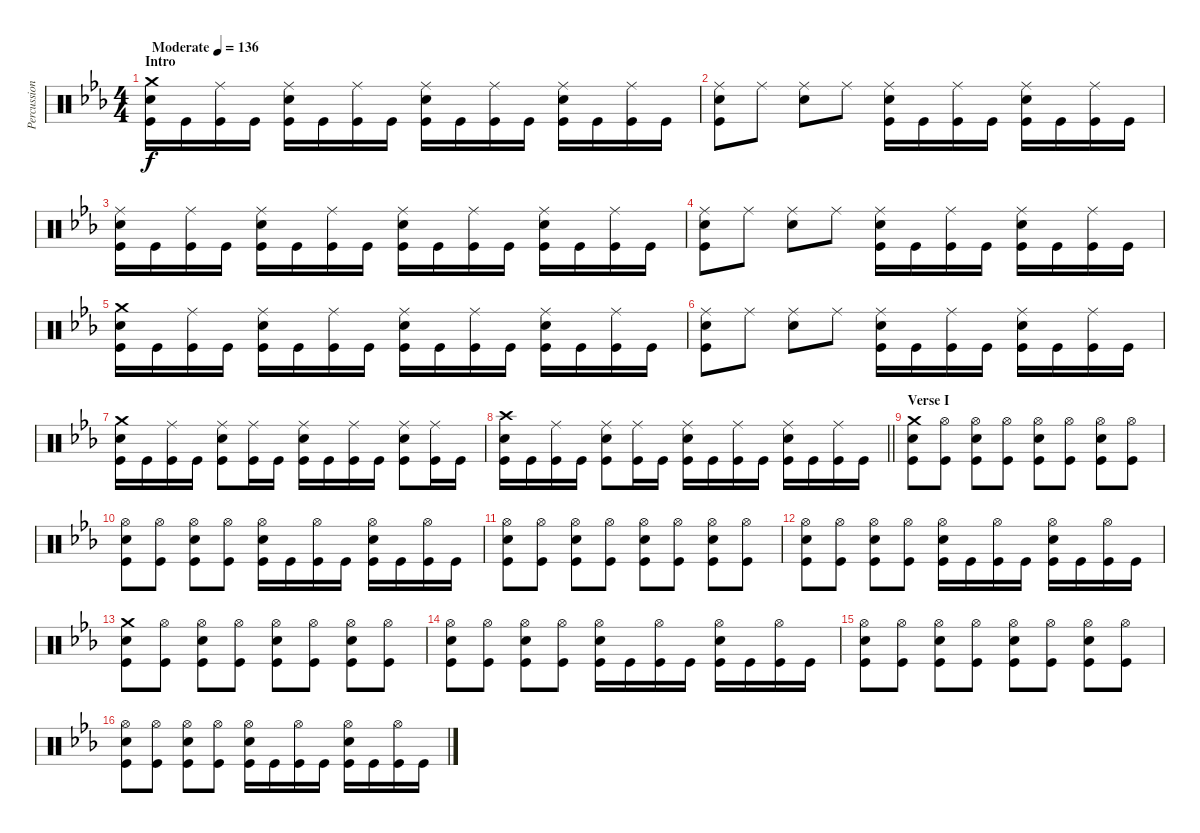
\track ("Percussion" "Percussion") {instrument percussion}
\staff {score}
\articulation defaults
\ts (4 4)
\section ("" "Intro")
\tempo (136 "Moderate")
\clef neutral
\ks eb
("Crash medium (hit)" "Electric Snare (hit)" "Kick (hit)").16{dy f} "Kick (hit)".16 ("Ride (middle)" "Kick (hit)").16 "Kick (hit)".16 ("Ride (middle)" "Electric Snare (hit)" "Kick (hit)").16 "Kick (hit)".16 ("Ride (middle)" "Kick (hit)").16 "Kick (hit)".16 ("Ride (middle)" "Electric Snare (hit)" "Kick (hit)").16 "Kick (hit)".16 ("Ride (middle)" "Kick (hit)").16 "Kick (hit)".16 ("Ride (middle)" "Electric Snare (hit)" "Kick (hit)").16 "Kick (hit)".16 ("Ride (middle)" "Kick (hit)").16 "Kick (hit)".16 |
("Ride (middle)" "Electric Snare (hit)" "Kick (hit)").8 "Ride (middle)".8 ("Ride (middle)" "Electric Snare (hit)").8 "Ride (middle)".8 ("Ride (middle)" "Electric Snare (hit)" "Kick (hit)").16 "Kick (hit)".16 ("Ride (middle)" "Kick (hit)").16 "Kick (hit)".16 ("Ride (middle)" "Electric Snare (hit)" "Kick (hit)").16 "Kick (hit)".16 ("Ride (middle)" "Kick (hit)").16 "Kick (hit)".16 |
("Ride (middle)" "Electric Snare (hit)" "Kick (hit)").16 "Kick (hit)".16 ("Ride (middle)" "Kick (hit)").16 "Kick (hit)".16 ("Ride (middle)" "Electric Snare (hit)" "Kick (hit)").16 "Kick (hit)".16 ("Ride (middle)" "Kick (hit)").16 "Kick (hit)".16 ("Ride (middle)" "Electric Snare (hit)" "Kick (hit)").16 "Kick (hit)".16 ("Ride (middle)" "Kick (hit)").16 "Kick (hit)".16 ("Ride (middle)" "Electric Snare (hit)" "Kick (hit)").16 "Kick (hit)".16 ("Ride (middle)" "Kick (hit)").16 "Kick (hit)".16 |
("Ride (middle)" "Electric Snare (hit)" "Kick (hit)").8 "Ride (middle)".8 ("Ride (middle)" "Electric Snare (hit)").8 "Ride (middle)".8 ("Ride (middle)" "Electric Snare (hit)" "Kick (hit)").16 "Kick (hit)".16 ("Ride (middle)" "Kick (hit)").16 "Kick (hit)".16 ("Ride (middle)" "Electric Snare (hit)" "Kick (hit)").16 "Kick (hit)".16 ("Ride (middle)" "Kick (hit)").16 "Kick (hit)".16 |
("Crash medium (hit)" "Electric Snare (hit)" "Kick (hit)").16 "Kick (hit)".16 ("Ride (middle)" "Kick (hit)").16 "Kick (hit)".16 ("Ride (middle)" "Electric Snare (hit)" "Kick (hit)").16 "Kick (hit)".16 ("Ride (middle)" "Kick (hit)").16 "Kick (hit)".16 ("Ride (middle)" "Electric Snare (hit)" "Kick (hit)").16 "Kick (hit)".16 ("Ride (middle)" "Kick (hit)").16 "Kick (hit)".16 ("Ride (middle)" "Electric Snare (hit)" "Kick (hit)").16 "Kick (hit)".16 ("Ride (middle)" "Kick (hit)").16 "Kick (hit)".16 |
("Ride (middle)" "Electric Snare (hit)" "Kick (hit)").8 "Ride (middle)".8 ("Ride (middle)" "Electric Snare (hit)").8 "Ride (middle)".8 ("Ride (middle)" "Electric Snare (hit)" "Kick (hit)").16 "Kick (hit)".16 ("Ride (middle)" "Kick (hit)").16 "Kick (hit)".16 ("Ride (middle)" "Electric Snare (hit)" "Kick (hit)").16 "Kick (hit)".16 ("Ride (middle)" "Kick (hit)").16 "Kick (hit)".16 |
("Crash medium (hit)" "Electric Snare (hit)" "Kick (hit)").16 "Kick (hit)".16 ("Ride (middle)" "Kick (hit)").16 "Kick (hit)".16 ("Ride (middle)" "Electric Snare (hit)" "Kick (hit)").8 ("Ride (middle)" "Kick (hit)").16 "Kick (hit)".16 ("Ride (middle)" "Electric Snare (hit)" "Kick (hit)").16 "Kick (hit)".16 ("Ride (middle)" "Kick (hit)").16 "Kick (hit)".16 ("Ride (middle)" "Electric Snare (hit)" "Kick (hit)").8 ("Ride (middle)" "Kick (hit)").16 "Kick (hit)".16 |
\barLineRight lightlight
("Crash high (hit)" "Electric Snare (hit)" "Kick (hit)").16 "Kick (hit)".16 ("Ride (middle)" "Kick (hit)").16 "Kick (hit)".16 ("Ride (middle)" "Electric Snare (hit)" "Kick (hit)").8 ("Ride (middle)" "Kick (hit)").16 "Kick (hit)".16 ("Ride (middle)" "Electric Snare (hit)" "Kick (hit)").16 "Kick (hit)".16 ("Ride (middle)" "Kick (hit)").16 "Kick (hit)".16 ("Ride (middle)" "Electric Snare (hit)" "Kick (hit)").16 "Kick (hit)".16 ("Ride (middle)" "Kick (hit)").16 "Kick (hit)".16 |
\section ("" "Verse I")
("Crash medium (hit)" "Electric Snare (hit)" "Kick (hit)").8 ("Hi-Hat (open)" "Kick (hit)").8 ("Hi-Hat (open)" "Electric Snare (hit)" "Kick (hit)").8 ("Hi-Hat (open)" "Kick (hit)").8 ("Hi-Hat (open)" "Electric Snare (hit)" "Kick (hit)").8 ("Hi-Hat (open)" "Kick (hit)").8 ("Hi-Hat (open)" "Electric Snare (hit)" "Kick (hit)").8 ("Hi-Hat (open)" "Kick (hit)").8 |
("Hi-Hat (open)" "Electric Snare (hit)" "Kick (hit)").8 ("Hi-Hat (open)" "Kick (hit)").8 ("Hi-Hat (open)" "Electric Snare (hit)" "Kick (hit)").8 ("Hi-Hat (open)" "Kick (hit)").8 ("Hi-Hat (open)" "Electric Snare (hit)" "Kick (hit)").16 "Kick (hit)".16 ("Hi-Hat (open)" "Kick (hit)").16 "Kick (hit)".16 ("Hi-Hat (open)" "Electric Snare (hit)" "Kick (hit)").16 "Kick (hit)".16 ("Hi-Hat (open)" "Kick (hit)").16 "Kick (hit)".16 |
("Hi-Hat (open)" "Electric Snare (hit)" "Kick (hit)").8 ("Hi-Hat (open)" "Kick (hit)").8 ("Hi-Hat (open)" "Electric Snare (hit)" "Kick (hit)").8 ("Hi-Hat (open)" "Kick (hit)").8 ("Hi-Hat (open)" "Electric Snare (hit)" "Kick (hit)").8 ("Hi-Hat (open)" "Kick (hit)").8 ("Hi-Hat (open)" "Electric Snare (hit)" "Kick (hit)").8 ("Hi-Hat (open)" "Kick (hit)").8 |
("Hi-Hat (open)" "Electric Snare (hit)" "Kick (hit)").8 ("Hi-Hat (open)" "Kick (hit)").8 ("Hi-Hat (open)" "Electric Snare (hit)" "Kick (hit)").8 ("Hi-Hat (open)" "Kick (hit)").8 ("Hi-Hat (open)" "Electric Snare (hit)" "Kick (hit)").16 "Kick (hit)".16 ("Hi-Hat (open)" "Kick (hit)").16 "Kick (hit)".16 ("Hi-Hat (open)" "Electric Snare (hit)" "Kick (hit)").16 "Kick (hit)".16 ("Hi-Hat (open)" "Kick (hit)").16 "Kick (hit)".16 |
("Crash medium (hit)" "Electric Snare (hit)" "Kick (hit)").8 ("Hi-Hat (open)" "Kick (hit)").8 ("Hi-Hat (open)" "Electric Snare (hit)" "Kick (hit)").8 ("Hi-Hat (open)" "Kick (hit)").8 ("Hi-Hat (open)" "Electric Snare (hit)" "Kick (hit)").8 ("Hi-Hat (open)" "Kick (hit)").8 ("Hi-Hat (open)" "Electric Snare (hit)" "Kick (hit)").8 ("Hi-Hat (open)" "Kick (hit)").8 |
("Hi-Hat (open)" "Electric Snare (hit)" "Kick (hit)").8 ("Hi-Hat (open)" "Kick (hit)").8 ("Hi-Hat (open)" "Electric Snare (hit)" "Kick (hit)").8 ("Hi-Hat (open)" "Kick (hit)").8 ("Hi-Hat (open)" "Electric Snare (hit)" "Kick (hit)").16 "Kick (hit)".16 ("Hi-Hat (open)" "Kick (hit)").16 "Kick (hit)".16 ("Hi-Hat (open)" "Electric Snare (hit)" "Kick (hit)").16 "Kick (hit)".16 ("Hi-Hat (open)" "Kick (hit)").16 "Kick (hit)".16 |
("Hi-Hat (open)" "Electric Snare (hit)" "Kick (hit)").8 ("Hi-Hat (open)" "Kick (hit)").8 ("Hi-Hat (open)" "Electric Snare (hit)" "Kick (hit)").8 ("Hi-Hat (open)" "Kick (hit)").8 ("Hi-Hat (open)" "Electric Snare (hit)" "Kick (hit)").8 ("Hi-Hat (open)" "Kick (hit)").8 ("Hi-Hat (open)" "Electric Snare (hit)" "Kick (hit)").8 ("Hi-Hat (open)" "Kick (hit)").8 |
("Hi-Hat (open)" "Electric Snare (hit)" "Kick (hit)").8 ("Hi-Hat (open)" "Kick (hit)").8 ("Hi-Hat (open)" "Electric Snare (hit)" "Kick (hit)").8 ("Hi-Hat (open)" "Kick (hit)").8 ("Hi-Hat (open)" "Electric Snare (hit)" "Kick (hit)").16 "Kick (hit)".16 ("Hi-Hat (open)" "Kick (hit)").16 "Kick (hit)".16 ("Hi-Hat (open)" "Electric Snare (hit)" "Kick (hit)").16 "Kick (hit)".16 ("Hi-Hat (open)" "Kick (hit)").16 "Kick (hit)".16
